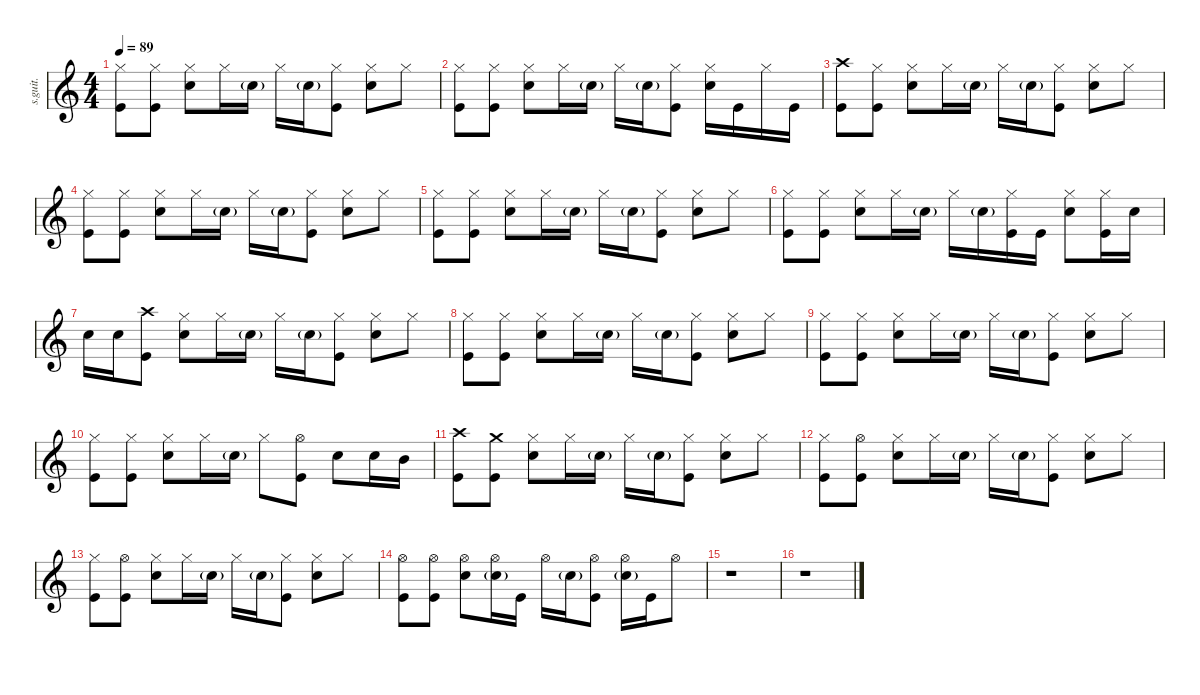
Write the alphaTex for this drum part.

\defaultSystemsLayout 4
\hideDynamics
\bracketExtendMode nobrackets
\track ("Chad Smith" "s.guit.") {instrument percussion}
\staff {score}
\articulation defaults
\ts (4 4)
\tempo 89
\clef g2
\ks c
("Hi-Hat (closed)" "Kick (hit)").8{lyrics (0 "") lyrics (1 "") lyrics (2 "") lyrics (3 "") lyrics (4 "") dy f} ("Hi-Hat (closed)" "Kick (hit)").8{lyrics (0 "") lyrics (1 "") lyrics (2 "") lyrics (3 "") lyrics (4 "")} ("Hi-Hat (closed)" "Snare (hit) 2").8{lyrics (0 "") lyrics (1 "") lyrics (2 "") lyrics (3 "") lyrics (4 "")} "Hi-Hat (closed)".16{lyrics (0 "") lyrics (1 "") lyrics (2 "") lyrics (3 "") lyrics (4 "")} "Snare (hit) 2"{g}.16{lyrics (0 "") lyrics (1 "") lyrics (2 "") lyrics (3 "") lyrics (4 "") dy ppp} "Hi-Hat (closed)".16{lyrics (0 "") lyrics (1 "") lyrics (2 "") lyrics (3 "") lyrics (4 "") dy fff} "Snare (hit) 2"{g}.16{lyrics (0 "") lyrics (1 "") lyrics (2 "") lyrics (3 "") lyrics (4 "") dy ppp} ("Hi-Hat (closed)" "Kick (hit)").8{lyrics (0 "") lyrics (1 "") lyrics (2 "") lyrics (3 "") lyrics (4 "") dy f} ("Hi-Hat (closed)" "Snare (hit) 2").8{lyrics (0 "") lyrics (1 "") lyrics (2 "") lyrics (3 "") lyrics (4 "")} "Hi-Hat (closed)".8{lyrics (0 "") lyrics (1 "") lyrics (2 "") lyrics (3 "") lyrics (4 "")} |
("Hi-Hat (closed)" "Kick (hit)").8{lyrics (0 "") lyrics (1 "") lyrics (2 "") lyrics (3 "") lyrics (4 "")} ("Hi-Hat (closed)" "Kick (hit)").8{lyrics (0 "") lyrics (1 "") lyrics (2 "") lyrics (3 "") lyrics (4 "")} ("Hi-Hat (closed)" "Snare (hit) 2").8{lyrics (0 "") lyrics (1 "") lyrics (2 "") lyrics (3 "") lyrics (4 "")} "Hi-Hat (closed)".16{lyrics (0 "") lyrics (1 "") lyrics (2 "") lyrics (3 "") lyrics (4 "")} "Snare (hit) 2"{g}.16{lyrics (0 "") lyrics (1 "") lyrics (2 "") lyrics (3 "") lyrics (4 "") dy ppp} "Hi-Hat (closed)".16{lyrics (0 "") lyrics (1 "") lyrics (2 "") lyrics (3 "") lyrics (4 "") dy fff} "Snare (hit) 2"{g}.16{lyrics (0 "") lyrics (1 "") lyrics (2 "") lyrics (3 "") lyrics (4 "") dy ppp} ("Hi-Hat (closed)" "Kick (hit)").8{lyrics (0 "") lyrics (1 "") lyrics (2 "") lyrics (3 "") lyrics (4 "") dy f} ("Hi-Hat (closed)" "Snare (hit) 2").16{lyrics (0 "") lyrics (1 "") lyrics (2 "") lyrics (3 "") lyrics (4 "")} "Kick (hit)".16{lyrics (0 "") lyrics (1 "") lyrics (2 "") lyrics (3 "") lyrics (4 "")} "Hi-Hat (closed)".16{lyrics (0 "") lyrics (1 "") lyrics (2 "") lyrics (3 "") lyrics (4 "")} "Kick (hit)".16{lyrics (0 "") lyrics (1 "") lyrics (2 "") lyrics (3 "") lyrics (4 "")} |
("Crash high (hit)" "Kick (hit)").8{lyrics (0 "") lyrics (1 "") lyrics (2 "") lyrics (3 "") lyrics (4 "")} ("Hi-Hat (closed)" "Kick (hit)").8{lyrics (0 "") lyrics (1 "") lyrics (2 "") lyrics (3 "") lyrics (4 "")} ("Hi-Hat (closed)" "Snare (hit) 2").8{lyrics (0 "") lyrics (1 "") lyrics (2 "") lyrics (3 "") lyrics (4 "")} "Hi-Hat (closed)".16{lyrics (0 "") lyrics (1 "") lyrics (2 "") lyrics (3 "") lyrics (4 "")} "Snare (hit) 2"{g}.16{lyrics (0 "") lyrics (1 "") lyrics (2 "") lyrics (3 "") lyrics (4 "") dy ppp} "Hi-Hat (closed)".16{lyrics (0 "") lyrics (1 "") lyrics (2 "") lyrics (3 "") lyrics (4 "") dy fff} "Snare (hit) 2"{g}.16{lyrics (0 "") lyrics (1 "") lyrics (2 "") lyrics (3 "") lyrics (4 "") dy ppp} ("Hi-Hat (closed)" "Kick (hit)").8{lyrics (0 "") lyrics (1 "") lyrics (2 "") lyrics (3 "") lyrics (4 "") dy f} ("Hi-Hat (closed)" "Snare (hit) 2").8{lyrics (0 "") lyrics (1 "") lyrics (2 "") lyrics (3 "") lyrics (4 "")} "Hi-Hat (closed)".8{lyrics (0 "") lyrics (1 "") lyrics (2 "") lyrics (3 "") lyrics (4 "")} |
("Hi-Hat (closed)" "Kick (hit)").8{lyrics (0 "") lyrics (1 "") lyrics (2 "") lyrics (3 "") lyrics (4 "")} ("Hi-Hat (closed)" "Kick (hit)").8{lyrics (0 "") lyrics (1 "") lyrics (2 "") lyrics (3 "") lyrics (4 "")} ("Hi-Hat (closed)" "Snare (hit) 2").8{lyrics (0 "") lyrics (1 "") lyrics (2 "") lyrics (3 "") lyrics (4 "")} "Hi-Hat (closed)".16{lyrics (0 "") lyrics (1 "") lyrics (2 "") lyrics (3 "") lyrics (4 "")} "Snare (hit) 2"{g}.16{lyrics (0 "") lyrics (1 "") lyrics (2 "") lyrics (3 "") lyrics (4 "") dy ppp} "Hi-Hat (closed)".16{lyrics (0 "") lyrics (1 "") lyrics (2 "") lyrics (3 "") lyrics (4 "") dy fff} "Snare (hit) 2"{g}.16{lyrics (0 "") lyrics (1 "") lyrics (2 "") lyrics (3 "") lyrics (4 "") dy ppp} ("Hi-Hat (closed)" "Kick (hit)").8{lyrics (0 "") lyrics (1 "") lyrics (2 "") lyrics (3 "") lyrics (4 "") dy f} ("Hi-Hat (closed)" "Snare (hit) 2").8{lyrics (0 "") lyrics (1 "") lyrics (2 "") lyrics (3 "") lyrics (4 "")} "Hi-Hat (closed)".8{lyrics (0 "") lyrics (1 "") lyrics (2 "") lyrics (3 "") lyrics (4 "")} |
("Hi-Hat (closed)" "Kick (hit)").8{lyrics (0 "") lyrics (1 "") lyrics (2 "") lyrics (3 "") lyrics (4 "")} ("Hi-Hat (closed)" "Kick (hit)").8{lyrics (0 "") lyrics (1 "") lyrics (2 "") lyrics (3 "") lyrics (4 "")} ("Hi-Hat (closed)" "Snare (hit) 2").8{lyrics (0 "") lyrics (1 "") lyrics (2 "") lyrics (3 "") lyrics (4 "")} "Hi-Hat (closed)".16{lyrics (0 "") lyrics (1 "") lyrics (2 "") lyrics (3 "") lyrics (4 "")} "Snare (hit) 2"{g}.16{lyrics (0 "") lyrics (1 "") lyrics (2 "") lyrics (3 "") lyrics (4 "") dy ppp} "Hi-Hat (closed)".16{lyrics (0 "") lyrics (1 "") lyrics (2 "") lyrics (3 "") lyrics (4 "") dy fff} "Snare (hit) 2"{g}.16{lyrics (0 "") lyrics (1 "") lyrics (2 "") lyrics (3 "") lyrics (4 "") dy ppp} ("Hi-Hat (closed)" "Kick (hit)").8{lyrics (0 "") lyrics (1 "") lyrics (2 "") lyrics (3 "") lyrics (4 "") dy f} ("Hi-Hat (closed)" "Snare (hit) 2").8{lyrics (0 "") lyrics (1 "") lyrics (2 "") lyrics (3 "") lyrics (4 "")} "Hi-Hat (closed)".8{lyrics (0 "") lyrics (1 "") lyrics (2 "") lyrics (3 "") lyrics (4 "")} |
("Hi-Hat (closed)" "Kick (hit)").8{lyrics (0 "") lyrics (1 "") lyrics (2 "") lyrics (3 "") lyrics (4 "")} ("Hi-Hat (closed)" "Kick (hit)").8{lyrics (0 "") lyrics (1 "") lyrics (2 "") lyrics (3 "") lyrics (4 "")} ("Hi-Hat (closed)" "Snare (hit) 2").8{lyrics (0 "") lyrics (1 "") lyrics (2 "") lyrics (3 "") lyrics (4 "")} "Hi-Hat (closed)".16{lyrics (0 "") lyrics (1 "") lyrics (2 "") lyrics (3 "") lyrics (4 "")} "Snare (hit) 2"{g}.16{lyrics (0 "") lyrics (1 "") lyrics (2 "") lyrics (3 "") lyrics (4 "") dy ppp} "Hi-Hat (closed)".16{lyrics (0 "") lyrics (1 "") lyrics (2 "") lyrics (3 "") lyrics (4 "") dy fff} "Snare (hit) 2"{g}.16{lyrics (0 "") lyrics (1 "") lyrics (2 "") lyrics (3 "") lyrics (4 "") dy ppp} ("Hi-Hat (closed)" "Kick (hit)").16{lyrics (0 "") lyrics (1 "") lyrics (2 "") lyrics (3 "") lyrics (4 "") dy f} "Kick (hit)".16{lyrics (0 "") lyrics (1 "") lyrics (2 "") lyrics (3 "") lyrics (4 "")} ("Hi-Hat (closed)" "Snare (hit) 2").8{lyrics (0 "") lyrics (1 "") lyrics (2 "") lyrics (3 "") lyrics (4 "")} ("Hi-Hat (closed)" "Kick (hit)").16{lyrics (0 "") lyrics (1 "") lyrics (2 "") lyrics (3 "") lyrics (4 "")} "Snare (hit) 2".16{lyrics (0 "") lyrics (1 "") lyrics (2 "") lyrics (3 "") lyrics (4 "")} |
"Snare (hit) 2".16{lyrics (0 "") lyrics (1 "") lyrics (2 "") lyrics (3 "") lyrics (4 "")} "Snare (hit) 2".16{lyrics (0 "") lyrics (1 "") lyrics (2 "") lyrics (3 "") lyrics (4 "")} ("Crash high (hit)" "Kick (hit)").8{lyrics (0 "") lyrics (1 "") lyrics (2 "") lyrics (3 "") lyrics (4 "")} ("Hi-Hat (closed)" "Snare (hit) 2").8{lyrics (0 "") lyrics (1 "") lyrics (2 "") lyrics (3 "") lyrics (4 "")} "Hi-Hat (closed)".16{lyrics (0 "") lyrics (1 "") lyrics (2 "") lyrics (3 "") lyrics (4 "")} "Snare (hit) 2"{g}.16{lyrics (0 "") lyrics (1 "") lyrics (2 "") lyrics (3 "") lyrics (4 "") dy ppp} "Hi-Hat (closed)".16{lyrics (0 "") lyrics (1 "") lyrics (2 "") lyrics (3 "") lyrics (4 "") dy fff} "Snare (hit) 2"{g}.16{lyrics (0 "") lyrics (1 "") lyrics (2 "") lyrics (3 "") lyrics (4 "") dy ppp} ("Hi-Hat (closed)" "Kick (hit)").8{lyrics (0 "") lyrics (1 "") lyrics (2 "") lyrics (3 "") lyrics (4 "") dy f} ("Hi-Hat (closed)" "Snare (hit) 2").8{lyrics (0 "") lyrics (1 "") lyrics (2 "") lyrics (3 "") lyrics (4 "")} "Hi-Hat (closed)".8{lyrics (0 "") lyrics (1 "") lyrics (2 "") lyrics (3 "") lyrics (4 "")} |
("Hi-Hat (closed)" "Kick (hit)").8{lyrics (0 "") lyrics (1 "") lyrics (2 "") lyrics (3 "") lyrics (4 "")} ("Hi-Hat (closed)" "Kick (hit)").8{lyrics (0 "") lyrics (1 "") lyrics (2 "") lyrics (3 "") lyrics (4 "")} ("Hi-Hat (closed)" "Snare (hit) 2").8{lyrics (0 "") lyrics (1 "") lyrics (2 "") lyrics (3 "") lyrics (4 "")} "Hi-Hat (closed)".16{lyrics (0 "") lyrics (1 "") lyrics (2 "") lyrics (3 "") lyrics (4 "")} "Snare (hit) 2"{g}.16{lyrics (0 "") lyrics (1 "") lyrics (2 "") lyrics (3 "") lyrics (4 "") dy ppp} "Hi-Hat (closed)".16{lyrics (0 "") lyrics (1 "") lyrics (2 "") lyrics (3 "") lyrics (4 "") dy fff} "Snare (hit) 2"{g}.16{lyrics (0 "") lyrics (1 "") lyrics (2 "") lyrics (3 "") lyrics (4 "") dy ppp} ("Hi-Hat (closed)" "Kick (hit)").8{lyrics (0 "") lyrics (1 "") lyrics (2 "") lyrics (3 "") lyrics (4 "") dy f} ("Hi-Hat (closed)" "Snare (hit) 2").8{lyrics (0 "") lyrics (1 "") lyrics (2 "") lyrics (3 "") lyrics (4 "")} "Hi-Hat (closed)".8{lyrics (0 "") lyrics (1 "") lyrics (2 "") lyrics (3 "") lyrics (4 "")} |
("Hi-Hat (closed)" "Kick (hit)").8{lyrics (0 "") lyrics (1 "") lyrics (2 "") lyrics (3 "") lyrics (4 "")} ("Hi-Hat (closed)" "Kick (hit)").8{lyrics (0 "") lyrics (1 "") lyrics (2 "") lyrics (3 "") lyrics (4 "")} ("Hi-Hat (closed)" "Snare (hit) 2").8{lyrics (0 "") lyrics (1 "") lyrics (2 "") lyrics (3 "") lyrics (4 "")} "Hi-Hat (closed)".16{lyrics (0 "") lyrics (1 "") lyrics (2 "") lyrics (3 "") lyrics (4 "")} "Snare (hit) 2"{g}.16{lyrics (0 "") lyrics (1 "") lyrics (2 "") lyrics (3 "") lyrics (4 "") dy ppp} "Hi-Hat (closed)".16{lyrics (0 "") lyrics (1 "") lyrics (2 "") lyrics (3 "") lyrics (4 "") dy fff} "Snare (hit) 2"{g}.16{lyrics (0 "") lyrics (1 "") lyrics (2 "") lyrics (3 "") lyrics (4 "") dy ppp} ("Hi-Hat (closed)" "Kick (hit)").8{lyrics (0 "") lyrics (1 "") lyrics (2 "") lyrics (3 "") lyrics (4 "") dy f} ("Hi-Hat (closed)" "Snare (hit) 2").8{lyrics (0 "") lyrics (1 "") lyrics (2 "") lyrics (3 "") lyrics (4 "")} "Hi-Hat (closed)".8{lyrics (0 "") lyrics (1 "") lyrics (2 "") lyrics (3 "") lyrics (4 "")} |
("Hi-Hat (closed)" "Kick (hit)").8{lyrics (0 "") lyrics (1 "") lyrics (2 "") lyrics (3 "") lyrics (4 "")} ("Hi-Hat (closed)" "Kick (hit)").8{lyrics (0 "") lyrics (1 "") lyrics (2 "") lyrics (3 "") lyrics (4 "")} ("Hi-Hat (closed)" "Snare (hit) 2").8{lyrics (0 "") lyrics (1 "") lyrics (2 "") lyrics (3 "") lyrics (4 "")} "Hi-Hat (closed)".16{lyrics (0 "") lyrics (1 "") lyrics (2 "") lyrics (3 "") lyrics (4 "")} "Snare (hit) 2"{g}.16{lyrics (0 "") lyrics (1 "") lyrics (2 "") lyrics (3 "") lyrics (4 "") dy ppp} "Hi-Hat (closed)".8{lyrics (0 "") lyrics (1 "") lyrics (2 "") lyrics (3 "") lyrics (4 "") dy fff} ("Hi-Hat (open)" "Kick (hit)").8{lyrics (0 "") lyrics (1 "") lyrics (2 "") lyrics (3 "") lyrics (4 "") dy f} "Snare (hit) 2".8{lyrics (0 "") lyrics (1 "") lyrics (2 "") lyrics (3 "") lyrics (4 "")} "Snare (hit) 2".16{lyrics (0 "") lyrics (1 "") lyrics (2 "") lyrics (3 "") lyrics (4 "")} "Mid Tom (hit)".16{lyrics (0 "") lyrics (1 "") lyrics (2 "") lyrics (3 "") lyrics (4 "") dy fff} |
("Crash high (hit)" "Kick (hit)").8{lyrics (0 "") lyrics (1 "") lyrics (2 "") lyrics (3 "") lyrics (4 "") dy f} ("Crash medium (hit)" "Kick (hit)").8{lyrics (0 "") lyrics (1 "") lyrics (2 "") lyrics (3 "") lyrics (4 "")} ("Hi-Hat (closed)" "Snare (hit) 2").8{lyrics (0 "") lyrics (1 "") lyrics (2 "") lyrics (3 "") lyrics (4 "")} "Hi-Hat (closed)".16{lyrics (0 "") lyrics (1 "") lyrics (2 "") lyrics (3 "") lyrics (4 "")} "Snare (hit) 2"{g}.16{lyrics (0 "") lyrics (1 "") lyrics (2 "") lyrics (3 "") lyrics (4 "") dy ppp} "Hi-Hat (closed)".16{lyrics (0 "") lyrics (1 "") lyrics (2 "") lyrics (3 "") lyrics (4 "") dy fff} "Snare (hit) 2"{g}.16{lyrics (0 "") lyrics (1 "") lyrics (2 "") lyrics (3 "") lyrics (4 "") dy ppp} ("Hi-Hat (closed)" "Kick (hit)").8{lyrics (0 "") lyrics (1 "") lyrics (2 "") lyrics (3 "") lyrics (4 "") dy f} ("Hi-Hat (closed)" "Snare (hit) 2").8{lyrics (0 "") lyrics (1 "") lyrics (2 "") lyrics (3 "") lyrics (4 "")} "Hi-Hat (closed)".8{lyrics (0 "") lyrics (1 "") lyrics (2 "") lyrics (3 "") lyrics (4 "")} |
("Hi-Hat (closed)" "Kick (hit)").8{lyrics (0 "") lyrics (1 "") lyrics (2 "") lyrics (3 "") lyrics (4 "")} ("Hi-Hat (open)" "Kick (hit)").8{lyrics (0 "") lyrics (1 "") lyrics (2 "") lyrics (3 "") lyrics (4 "")} ("Hi-Hat (closed)" "Snare (hit) 2").8{lyrics (0 "") lyrics (1 "") lyrics (2 "") lyrics (3 "") lyrics (4 "")} "Hi-Hat (closed)".16{lyrics (0 "") lyrics (1 "") lyrics (2 "") lyrics (3 "") lyrics (4 "")} "Snare (hit) 2"{g}.16{lyrics (0 "") lyrics (1 "") lyrics (2 "") lyrics (3 "") lyrics (4 "") dy ppp} "Hi-Hat (closed)".16{lyrics (0 "") lyrics (1 "") lyrics (2 "") lyrics (3 "") lyrics (4 "") dy fff} "Snare (hit) 2"{g}.16{lyrics (0 "") lyrics (1 "") lyrics (2 "") lyrics (3 "") lyrics (4 "") dy ppp} ("Hi-Hat (closed)" "Kick (hit)").8{lyrics (0 "") lyrics (1 "") lyrics (2 "") lyrics (3 "") lyrics (4 "") dy f} ("Hi-Hat (closed)" "Snare (hit) 2").8{lyrics (0 "") lyrics (1 "") lyrics (2 "") lyrics (3 "") lyrics (4 "")} "Hi-Hat (closed)".8{lyrics (0 "") lyrics (1 "") lyrics (2 "") lyrics (3 "") lyrics (4 "")} |
("Hi-Hat (closed)" "Kick (hit)").8{lyrics (0 "") lyrics (1 "") lyrics (2 "") lyrics (3 "") lyrics (4 "")} ("Hi-Hat (open)" "Kick (hit)").8{lyrics (0 "") lyrics (1 "") lyrics (2 "") lyrics (3 "") lyrics (4 "")} ("Hi-Hat (closed)" "Snare (hit) 2").8{lyrics (0 "") lyrics (1 "") lyrics (2 "") lyrics (3 "") lyrics (4 "")} "Hi-Hat (closed)".16{lyrics (0 "") lyrics (1 "") lyrics (2 "") lyrics (3 "") lyrics (4 "")} "Snare (hit) 2"{g}.16{lyrics (0 "") lyrics (1 "") lyrics (2 "") lyrics (3 "") lyrics (4 "") dy ppp} "Hi-Hat (closed)".16{lyrics (0 "") lyrics (1 "") lyrics (2 "") lyrics (3 "") lyrics (4 "") dy fff} "Snare (hit) 2"{g}.16{lyrics (0 "") lyrics (1 "") lyrics (2 "") lyrics (3 "") lyrics (4 "") dy ppp} ("Hi-Hat (closed)" "Kick (hit)").8{lyrics (0 "") lyrics (1 "") lyrics (2 "") lyrics (3 "") lyrics (4 "") dy f} ("Hi-Hat (closed)" "Snare (hit) 2").8{lyrics (0 "") lyrics (1 "") lyrics (2 "") lyrics (3 "") lyrics (4 "")} "Hi-Hat (closed)".8{lyrics (0 "") lyrics (1 "") lyrics (2 "") lyrics (3 "") lyrics (4 "")} |
("Hi-Hat (open)" "Kick (hit)").8{lyrics (0 "") lyrics (1 "") lyrics (2 "") lyrics (3 "") lyrics (4 "")} ("Hi-Hat (open)" "Kick (hit)").8{lyrics (0 "") lyrics (1 "") lyrics (2 "") lyrics (3 "") lyrics (4 "")} ("Hi-Hat (open)" "Snare (hit) 2").8{lyrics (0 "") lyrics (1 "") lyrics (2 "") lyrics (3 "") lyrics (4 "")} ("Hi-Hat (open)" "Snare (hit) 2"{g}).16{lyrics (0 "") lyrics (1 "") lyrics (2 "") lyrics (3 "") lyrics (4 "")} "Kick (hit)".16{lyrics (0 "") lyrics (1 "") lyrics (2 "") lyrics (3 "") lyrics (4 "")} "Hi-Hat (open)".16{lyrics (0 "") lyrics (1 "") lyrics (2 "") lyrics (3 "") lyrics (4 "")} "Snare (hit) 2"{g}.16{lyrics (0 "") lyrics (1 "") lyrics (2 "") lyrics (3 "") lyrics (4 "") dy ppp} ("Hi-Hat (open)" "Kick (hit)").8{lyrics (0 "") lyrics (1 "") lyrics (2 "") lyrics (3 "") lyrics (4 "") dy f} ("Hi-Hat (open)" "Snare (hit) 2"{g}).16{lyrics (0 "") lyrics (1 "") lyrics (2 "") lyrics (3 "") lyrics (4 "")} "Kick (hit)".16{lyrics (0 "") lyrics (1 "") lyrics (2 "") lyrics (3 "") lyrics (4 "")} "Hi-Hat (open)".8{lyrics (0 "") lyrics (1 "") lyrics (2 "") lyrics (3 "") lyrics (4 "")} |
r.1 |
r.1
